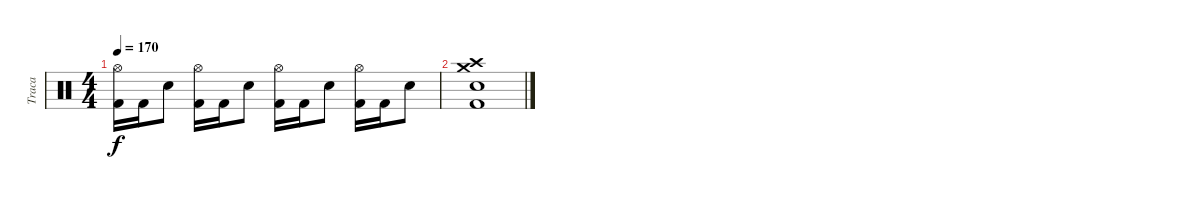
\track ("Traca" "Traca") {instrument percussion}
\staff {score}
\articulation defaults
\ts (4 4)
\tempo 170
\clef neutral
\ks c
("Hi-Hat (open)" "Kick (hit) 2").16{dy f} "Kick (hit) 2".16 "Snare (hit) 2".8 ("Hi-Hat (open)" "Kick (hit) 2").16 "Kick (hit) 2".16 "Snare (hit) 2".8 ("Hi-Hat (open)" "Kick (hit) 2").16 "Kick (hit) 2".16 "Snare (hit) 2".8 ("Hi-Hat (open)" "Kick (hit) 2").16 "Kick (hit) 2".16 "Snare (hit) 2".8 |
("Crash high (hit)" "Crash medium (hit)" "Snare (hit) 2" "Kick (hit) 2").1
